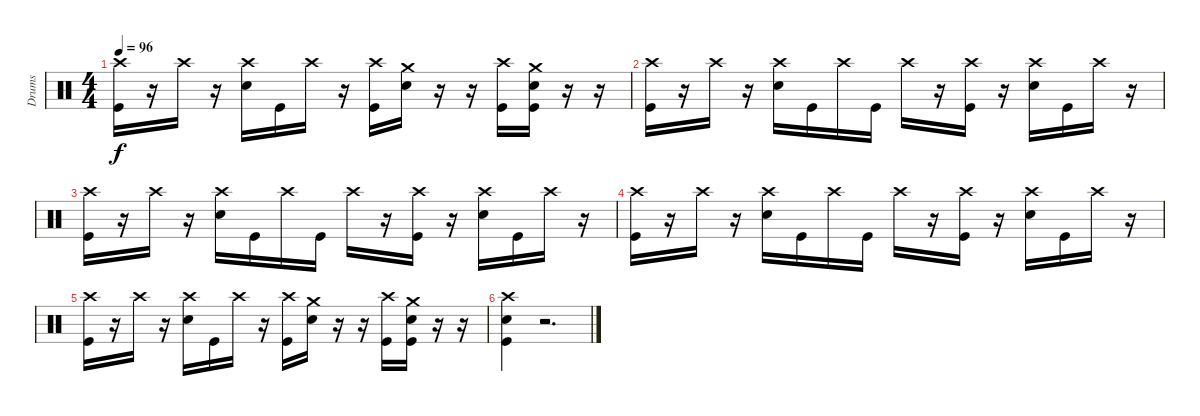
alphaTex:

\track ("Drums" "Drums") {instrument percussion}
\staff {score}
\articulation defaults
\ts (4 4)
\tempo 96
\clef neutral
\ks c
("Crash high (hit)" "Kick (hit)").16{dy f} r.16 "Crash high (hit)".16 r.16 ("Crash high (hit)" "Snare (hit) 2").16 "Kick (hit)".16 "Crash high (hit)".16 r.16 ("Crash high (hit)" "Kick (hit)").16 ("Crash medium (hit)" "Snare (hit) 2").16 r.16 r.16 ("Crash high (hit)" "Kick (hit)").16 ("Crash medium (hit)" "Snare (hit) 2" "Kick (hit)").16 r.16 r.16 |
("Crash high (hit)" "Kick (hit)").16 r.16 "Crash high (hit)".16 r.16 ("Crash high (hit)" "Snare (hit) 2").16 "Kick (hit)".16 "Crash high (hit)".16 "Kick (hit)".16 "Crash high (hit)".16 r.16 ("Crash high (hit)" "Kick (hit)").16 r.16 ("Crash high (hit)" "Snare (hit) 2").16 "Kick (hit)".16 "Crash high (hit)".16 r.16 |
("Crash high (hit)" "Kick (hit)").16 r.16 "Crash high (hit)".16 r.16 ("Crash high (hit)" "Snare (hit) 2").16 "Kick (hit)".16 "Crash high (hit)".16 "Kick (hit)".16 "Crash high (hit)".16 r.16 ("Crash high (hit)" "Kick (hit)").16 r.16 ("Crash high (hit)" "Snare (hit) 2").16 "Kick (hit)".16 "Crash high (hit)".16 r.16 |
("Crash high (hit)" "Kick (hit)").16 r.16 "Crash high (hit)".16 r.16 ("Crash high (hit)" "Snare (hit) 2").16 "Kick (hit)".16 "Crash high (hit)".16 "Kick (hit)".16 "Crash high (hit)".16 r.16 ("Crash high (hit)" "Kick (hit)").16 r.16 ("Crash high (hit)" "Snare (hit) 2").16 "Kick (hit)".16 "Crash high (hit)".16 r.16 |
("Crash high (hit)" "Kick (hit)").16 r.16 "Crash high (hit)".16 r.16 ("Crash high (hit)" "Snare (hit) 2").16 "Kick (hit)".16 "Crash high (hit)".16 r.16 ("Crash high (hit)" "Kick (hit)").16 ("Crash medium (hit)" "Snare (hit) 2").16 r.16 r.16 ("Crash high (hit)" "Kick (hit)").16 ("Crash medium (hit)" "Snare (hit) 2" "Kick (hit)").16 r.16 r.16 |
("Crash high (hit)" "Snare (hit) 2" "Kick (hit)").4 r.2{d}
